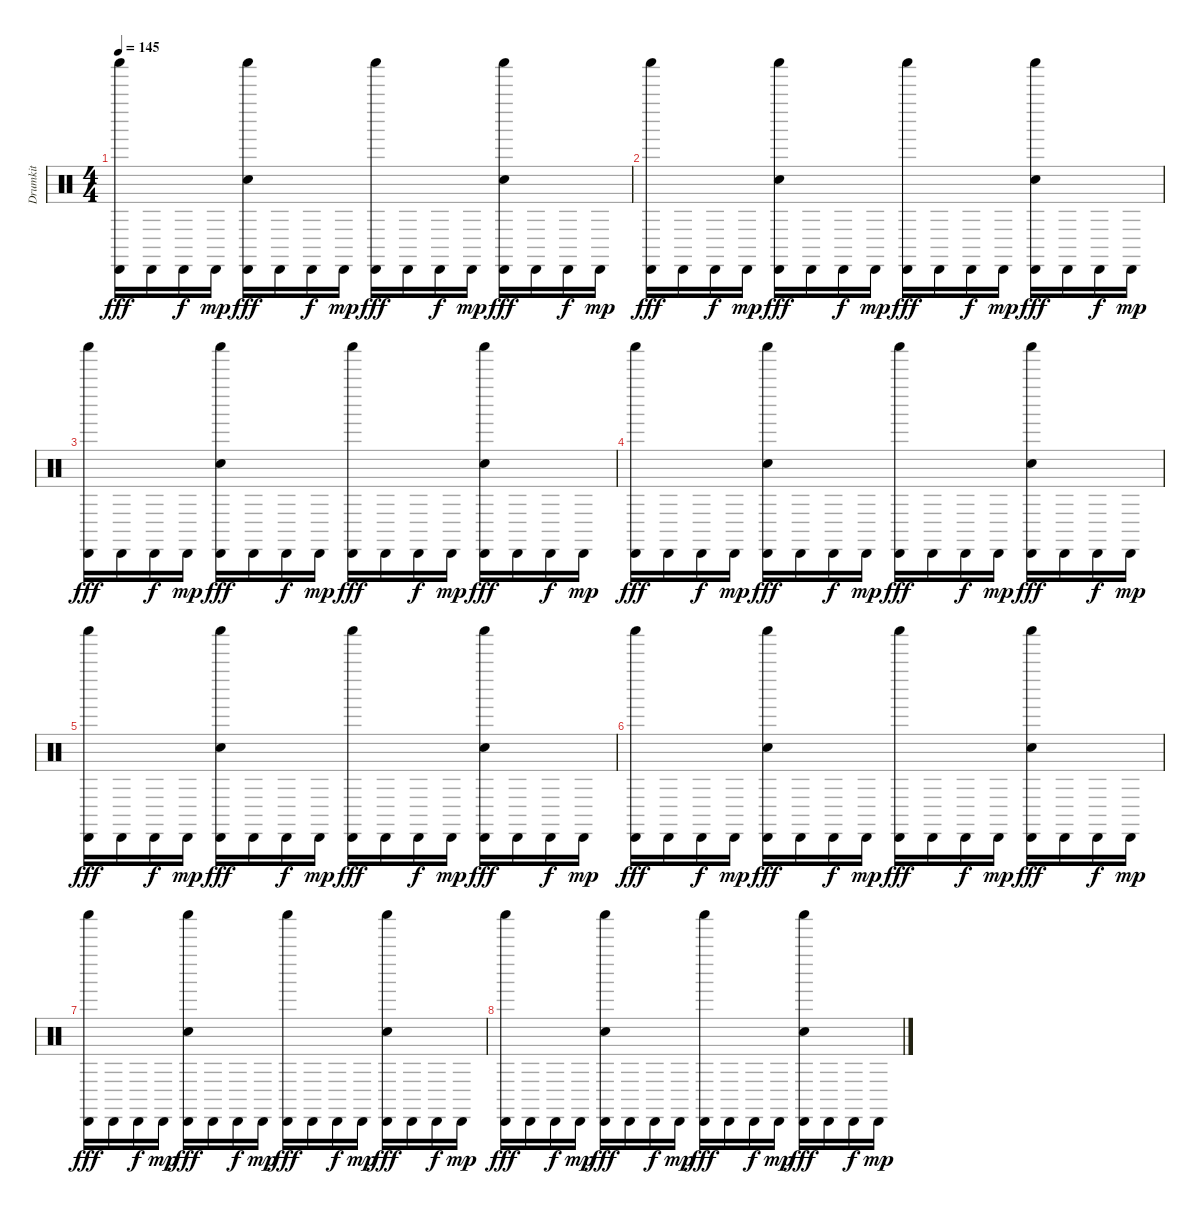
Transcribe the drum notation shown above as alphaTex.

\track ("Drumkit" "Drumkit") {instrument percussion}
\staff {score}
\articulation defaults
\ts (4 4)
\tempo 145
\clef neutral
\ks c
("Shaker (hit)" "Cabasa (hit)").16{dy fff} "Cabasa (hit)".16 "Cabasa (hit)".16{dy f} "Cabasa (hit)".16{dy mp} ("Shaker (hit)" "Snare (hit) 2" "Cabasa (hit)").16{dy fff} "Cabasa (hit)".16 "Cabasa (hit)".16{dy f} "Cabasa (hit)".16{dy mp} ("Shaker (hit)" "Cabasa (hit)").16{dy fff} "Cabasa (hit)".16 "Cabasa (hit)".16{dy f} "Cabasa (hit)".16{dy mp} ("Shaker (hit)" "Snare (hit) 2" "Cabasa (hit)").16{dy fff} "Cabasa (hit)".16 "Cabasa (hit)".16{dy f} "Cabasa (hit)".16{dy mp} |
("Shaker (hit)" "Cabasa (hit)").16{dy fff} "Cabasa (hit)".16 "Cabasa (hit)".16{dy f} "Cabasa (hit)".16{dy mp} ("Shaker (hit)" "Snare (hit) 2" "Cabasa (hit)").16{dy fff} "Cabasa (hit)".16 "Cabasa (hit)".16{dy f} "Cabasa (hit)".16{dy mp} ("Shaker (hit)" "Cabasa (hit)").16{dy fff} "Cabasa (hit)".16 "Cabasa (hit)".16{dy f} "Cabasa (hit)".16{dy mp} ("Shaker (hit)" "Snare (hit) 2" "Cabasa (hit)").16{dy fff} "Cabasa (hit)".16 "Cabasa (hit)".16{dy f} "Cabasa (hit)".16{dy mp} |
("Shaker (hit)" "Cabasa (hit)").16{dy fff} "Cabasa (hit)".16 "Cabasa (hit)".16{dy f} "Cabasa (hit)".16{dy mp} ("Shaker (hit)" "Snare (hit) 2" "Cabasa (hit)").16{dy fff} "Cabasa (hit)".16 "Cabasa (hit)".16{dy f} "Cabasa (hit)".16{dy mp} ("Shaker (hit)" "Cabasa (hit)").16{dy fff} "Cabasa (hit)".16 "Cabasa (hit)".16{dy f} "Cabasa (hit)".16{dy mp} ("Shaker (hit)" "Snare (hit) 2" "Cabasa (hit)").16{dy fff} "Cabasa (hit)".16 "Cabasa (hit)".16{dy f} "Cabasa (hit)".16{dy mp} |
("Shaker (hit)" "Cabasa (hit)").16{dy fff} "Cabasa (hit)".16 "Cabasa (hit)".16{dy f} "Cabasa (hit)".16{dy mp} ("Shaker (hit)" "Snare (hit) 2" "Cabasa (hit)").16{dy fff} "Cabasa (hit)".16 "Cabasa (hit)".16{dy f} "Cabasa (hit)".16{dy mp} ("Shaker (hit)" "Cabasa (hit)").16{dy fff} "Cabasa (hit)".16 "Cabasa (hit)".16{dy f} "Cabasa (hit)".16{dy mp} ("Shaker (hit)" "Snare (hit) 2" "Cabasa (hit)").16{dy fff} "Cabasa (hit)".16 "Cabasa (hit)".16{dy f} "Cabasa (hit)".16{dy mp} |
("Shaker (hit)" "Cabasa (hit)").16{dy fff} "Cabasa (hit)".16 "Cabasa (hit)".16{dy f} "Cabasa (hit)".16{dy mp} ("Shaker (hit)" "Snare (hit) 2" "Cabasa (hit)").16{dy fff} "Cabasa (hit)".16 "Cabasa (hit)".16{dy f} "Cabasa (hit)".16{dy mp} ("Shaker (hit)" "Cabasa (hit)").16{dy fff} "Cabasa (hit)".16 "Cabasa (hit)".16{dy f} "Cabasa (hit)".16{dy mp} ("Shaker (hit)" "Snare (hit) 2" "Cabasa (hit)").16{dy fff} "Cabasa (hit)".16 "Cabasa (hit)".16{dy f} "Cabasa (hit)".16{dy mp} |
("Shaker (hit)" "Cabasa (hit)").16{dy fff} "Cabasa (hit)".16 "Cabasa (hit)".16{dy f} "Cabasa (hit)".16{dy mp} ("Shaker (hit)" "Snare (hit) 2" "Cabasa (hit)").16{dy fff} "Cabasa (hit)".16 "Cabasa (hit)".16{dy f} "Cabasa (hit)".16{dy mp} ("Shaker (hit)" "Cabasa (hit)").16{dy fff} "Cabasa (hit)".16 "Cabasa (hit)".16{dy f} "Cabasa (hit)".16{dy mp} ("Shaker (hit)" "Snare (hit) 2" "Cabasa (hit)").16{dy fff} "Cabasa (hit)".16 "Cabasa (hit)".16{dy f} "Cabasa (hit)".16{dy mp} |
("Shaker (hit)" "Cabasa (hit)").16{dy fff} "Cabasa (hit)".16 "Cabasa (hit)".16{dy f} "Cabasa (hit)".16{dy mp} ("Shaker (hit)" "Snare (hit) 2" "Cabasa (hit)").16{dy fff} "Cabasa (hit)".16 "Cabasa (hit)".16{dy f} "Cabasa (hit)".16{dy mp} ("Shaker (hit)" "Cabasa (hit)").16{dy fff} "Cabasa (hit)".16 "Cabasa (hit)".16{dy f} "Cabasa (hit)".16{dy mp} ("Shaker (hit)" "Snare (hit) 2" "Cabasa (hit)").16{dy fff} "Cabasa (hit)".16 "Cabasa (hit)".16{dy f} "Cabasa (hit)".16{dy mp} |
("Shaker (hit)" "Cabasa (hit)").16{dy fff} "Cabasa (hit)".16 "Cabasa (hit)".16{dy f} "Cabasa (hit)".16{dy mp} ("Shaker (hit)" "Snare (hit) 2" "Cabasa (hit)").16{dy fff} "Cabasa (hit)".16 "Cabasa (hit)".16{dy f} "Cabasa (hit)".16{dy mp} ("Shaker (hit)" "Cabasa (hit)").16{dy fff} "Cabasa (hit)".16 "Cabasa (hit)".16{dy f} "Cabasa (hit)".16{dy mp} ("Shaker (hit)" "Snare (hit) 2" "Cabasa (hit)").16{dy fff} "Cabasa (hit)".16 "Cabasa (hit)".16{dy f} "Cabasa (hit)".16{dy mp}
